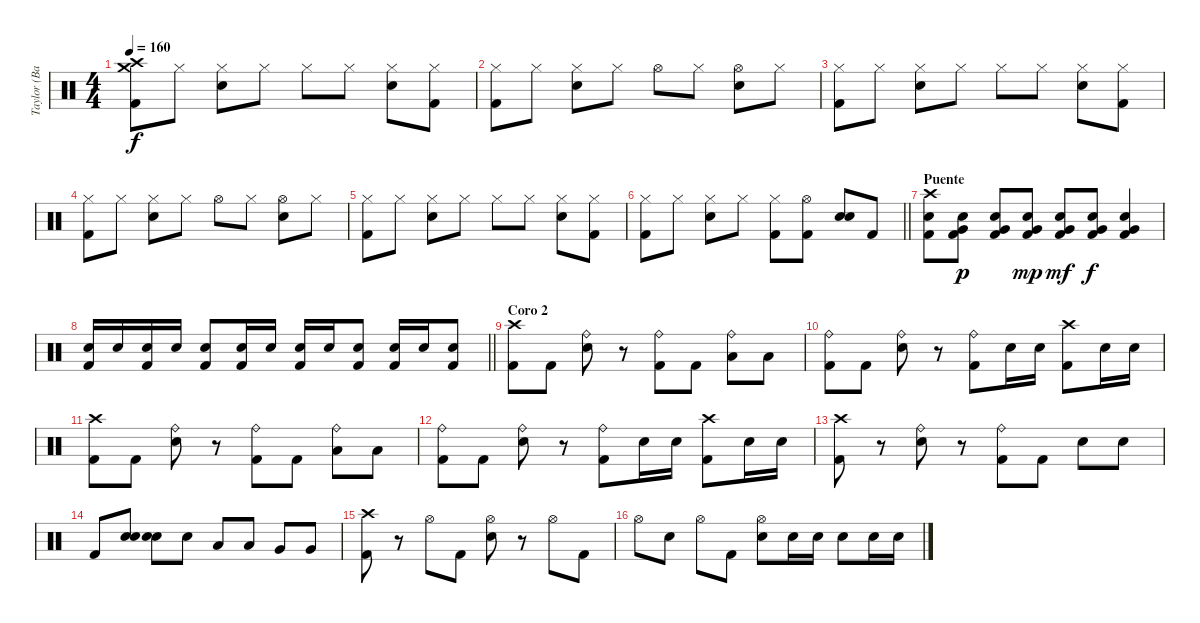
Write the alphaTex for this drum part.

\track ("Taylor (Batería)" "Taylor (Ba") {instrument percussion}
\staff {score}
\articulation defaults
\ts (4 4)
\tempo 160
\clef neutral
\ks c
("Crash high (hit)" "Crash medium (hit)" "Kick (hit) 2").8{dy f} "Hi-Hat (closed)".8 ("Hi-Hat (closed)" "Electric Snare (hit)").8 "Hi-Hat (closed)".8 "Hi-Hat (closed)".8 "Hi-Hat (closed)".8 ("Hi-Hat (closed)" "Electric Snare (hit)").8 ("Hi-Hat (closed)" "Kick (hit) 2").8 |
("Hi-Hat (closed)" "Kick (hit) 2").8 "Hi-Hat (closed)".8 ("Hi-Hat (closed)" "Electric Snare (hit)").8 "Hi-Hat (closed)".8 "Hi-Hat (open)".8 "Hi-Hat (closed)".8 ("Hi-Hat (open)" "Electric Snare (hit)").8 "Hi-Hat (closed)".8 |
("Hi-Hat (closed)" "Kick (hit) 2").8 "Hi-Hat (closed)".8 ("Hi-Hat (closed)" "Electric Snare (hit)").8 "Hi-Hat (closed)".8 "Hi-Hat (closed)".8 "Hi-Hat (closed)".8 ("Hi-Hat (closed)" "Electric Snare (hit)").8 ("Hi-Hat (closed)" "Kick (hit) 2").8 |
("Hi-Hat (closed)" "Kick (hit) 2").8 "Hi-Hat (closed)".8 ("Hi-Hat (closed)" "Electric Snare (hit)").8 "Hi-Hat (closed)".8 "Hi-Hat (open)".8 "Hi-Hat (closed)".8 ("Hi-Hat (open)" "Electric Snare (hit)").8 "Hi-Hat (closed)".8 |
("Hi-Hat (closed)" "Kick (hit) 2").8 "Hi-Hat (closed)".8 ("Hi-Hat (closed)" "Electric Snare (hit)").8 "Hi-Hat (closed)".8 "Hi-Hat (closed)".8 "Hi-Hat (closed)".8 ("Hi-Hat (closed)" "Electric Snare (hit)").8 ("Hi-Hat (closed)" "Kick (hit) 2").8 |
\barLineRight lightlight
("Hi-Hat (closed)" "Kick (hit) 2").8 "Hi-Hat (closed)".8 ("Hi-Hat (closed)" "Electric Snare (hit)").8 "Hi-Hat (closed)".8 ("Hi-Hat (closed)" "Kick (hit) 2").8 ("Hi-Hat (open)" "Kick (hit) 2").8 ("Electric Snare (hit)" "Electric Snare (hit)").8 "Kick (hit) 2".8 |
\section ("" "Puente")
("Crash high (hit)" "Electric Snare (hit)" "Kick (hit) 2").8 ("Electric Snare (hit)" "Very Low Tom (hit)" "Kick (hit) 2").8{dy p} ("Electric Snare (hit)" "Very Low Tom (hit)" "Kick (hit) 2").8 ("Electric Snare (hit)" "Very Low Tom (hit)" "Kick (hit) 2").8{dy mp} ("Electric Snare (hit)" "Very Low Tom (hit)" "Kick (hit) 2").8{dy mf} ("Electric Snare (hit)" "Very Low Tom (hit)" "Kick (hit) 2").8{dy f} ("Electric Snare (hit)" "Very Low Tom (hit)" "Kick (hit) 2").4 |
\barLineRight lightlight
("Electric Snare (hit)" "Kick (hit) 2").16 "Electric Snare (hit)".16 ("Electric Snare (hit)" "Kick (hit) 2").16 "Electric Snare (hit)".16 ("Electric Snare (hit)" "Kick (hit) 2").8 ("Electric Snare (hit)" "Kick (hit) 2").16 "Electric Snare (hit)".16 ("Electric Snare (hit)" "Kick (hit) 2").16 "Electric Snare (hit)".16 ("Electric Snare (hit)" "Kick (hit) 2").8 ("Electric Snare (hit)" "Kick (hit) 2").16 "Electric Snare (hit)".16 ("Electric Snare (hit)" "Kick (hit) 2").8 |
\section ("" "Coro 2")
("Crash high (hit)" "Kick (hit) 2").8 "Kick (hit) 2".8 ("Ride (bell)" "Electric Snare (hit)").8 r.8 ("Ride (bell)" "Kick (hit) 2").8 "Kick (hit) 2".8 ("Ride (bell)" "Low Tom (hit)").8 "Low Tom (hit)".8 |
("Ride (bell)" "Kick (hit) 2").8 "Kick (hit) 2".8 ("Ride (bell)" "Electric Snare (hit)").8 r.8 ("Ride (bell)" "Kick (hit) 2").8 "Electric Snare (hit)".16 "Electric Snare (hit)".16 ("Crash high (hit)" "Kick (hit) 2").8 "Electric Snare (hit)".16 "Electric Snare (hit)".16 |
("Crash high (hit)" "Kick (hit) 2").8 "Kick (hit) 2".8 ("Ride (bell)" "Electric Snare (hit)").8 r.8 ("Ride (bell)" "Kick (hit) 2").8 "Kick (hit) 2".8 ("Ride (bell)" "Low Tom (hit)").8 "Low Tom (hit)".8 |
("Ride (bell)" "Kick (hit) 2").8 "Kick (hit) 2".8 ("Ride (bell)" "Electric Snare (hit)").8 r.8 ("Ride (bell)" "Kick (hit) 2").8 "Electric Snare (hit)".16 "Electric Snare (hit)".16 ("Crash high (hit)" "Kick (hit) 2").8 "Electric Snare (hit)".16 "Electric Snare (hit)".16 |
("Crash high (hit)" "Kick (hit) 2").8 r.8 ("Ride (bell)" "Electric Snare (hit)").8 r.8 ("Ride (bell)" "Kick (hit) 2").8 "Kick (hit) 2".8 "Electric Snare (hit)".8 "Electric Snare (hit)".8 |
"Kick (hit) 2".8 ("Electric Snare (hit)" "Electric Snare (hit)").8 ("Electric Snare (hit)" "Electric Snare (hit)").8 "Electric Snare (hit)".8 "Low Tom (hit)".8 "Low Tom (hit)".8 "Very Low Tom (hit)".8 "Very Low Tom (hit)".8 |
("Crash high (hit)" "Kick (hit) 2").8 r.8 "Hi-Hat (open)".8 "Kick (hit) 2".8 ("Hi-Hat (open)" "Electric Snare (hit)").8 r.8 "Hi-Hat (open)".8 "Kick (hit) 2".8 |
"Hi-Hat (open)".8 "Electric Snare (hit)".8 "Hi-Hat (open)".8 "Kick (hit) 2".8 ("Hi-Hat (open)" "Electric Snare (hit)").8 "Electric Snare (hit)".16 "Electric Snare (hit)".16 "Electric Snare (hit)".8 "Electric Snare (hit)".16 "Electric Snare (hit)".16
